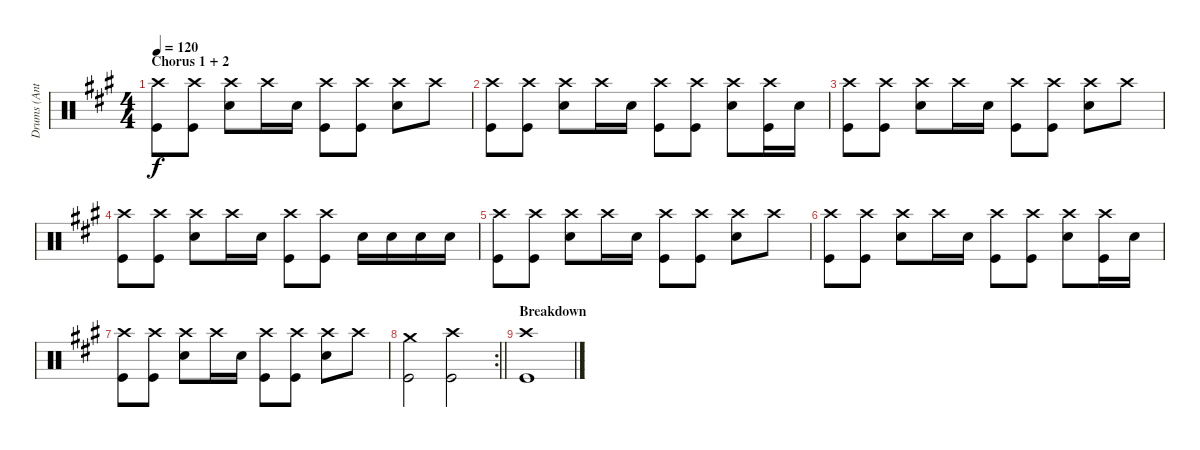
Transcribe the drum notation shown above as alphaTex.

\track ("Drums (Ant)" "Drums (Ant") {instrument percussion}
\staff {score}
\articulation defaults
\ts (4 4)
\section ("" "Chorus 1 + 2")
\tempo 120
\clef neutral
\ks a
("Crash high (hit)" "Kick (hit)").8{dy f} ("Crash high (hit)" "Kick (hit)").8 ("Crash high (hit)" "Snare (hit) 2").8 "Crash high (hit)".16 "Snare (hit) 2".16 ("Crash high (hit)" "Kick (hit)").8 ("Crash high (hit)" "Kick (hit)").8 ("Crash high (hit)" "Snare (hit) 2").8 "Crash high (hit)".8 |
("Crash high (hit)" "Kick (hit)").8 ("Crash high (hit)" "Kick (hit)").8 ("Crash high (hit)" "Snare (hit) 2").8 "Crash high (hit)".16 "Snare (hit) 2".16 ("Crash high (hit)" "Kick (hit)").8 ("Crash high (hit)" "Kick (hit)").8 ("Crash high (hit)" "Snare (hit) 2").8 ("Crash high (hit)" "Kick (hit)").16 "Snare (hit) 2".16 |
("Crash high (hit)" "Kick (hit)").8 ("Crash high (hit)" "Kick (hit)").8 ("Crash high (hit)" "Snare (hit) 2").8 "Crash high (hit)".16 "Snare (hit) 2".16 ("Crash high (hit)" "Kick (hit)").8 ("Crash high (hit)" "Kick (hit)").8 ("Crash high (hit)" "Snare (hit) 2").8 "Crash high (hit)".8 |
("Crash high (hit)" "Kick (hit)").8 ("Crash high (hit)" "Kick (hit)").8 ("Crash high (hit)" "Snare (hit) 2").8 "Crash high (hit)".16 "Snare (hit) 2".16 ("Crash high (hit)" "Kick (hit)").8 ("Crash high (hit)" "Kick (hit)").8 "Snare (hit) 2".16 "Snare (hit) 2".16 "Snare (hit) 2".16 "Snare (hit) 2".16 |
("Crash high (hit)" "Kick (hit)").8 ("Crash high (hit)" "Kick (hit)").8 ("Crash high (hit)" "Snare (hit) 2").8 "Crash high (hit)".16 "Snare (hit) 2".16 ("Crash high (hit)" "Kick (hit)").8 ("Crash high (hit)" "Kick (hit)").8 ("Crash high (hit)" "Snare (hit) 2").8 "Crash high (hit)".8 |
("Crash high (hit)" "Kick (hit)").8 ("Crash high (hit)" "Kick (hit)").8 ("Crash high (hit)" "Snare (hit) 2").8 "Crash high (hit)".16 "Snare (hit) 2".16 ("Crash high (hit)" "Kick (hit)").8 ("Crash high (hit)" "Kick (hit)").8 ("Crash high (hit)" "Snare (hit) 2").8 ("Crash high (hit)" "Kick (hit)").16 "Snare (hit) 2".16 |
("Crash high (hit)" "Kick (hit)").8 ("Crash high (hit)" "Kick (hit)").8 ("Crash high (hit)" "Snare (hit) 2").8 "Crash high (hit)".16 "Snare (hit) 2".16 ("Crash high (hit)" "Kick (hit)").8 ("Crash high (hit)" "Kick (hit)").8 ("Crash high (hit)" "Snare (hit) 2").8 "Crash high (hit)".8 |
\rc 2
\barLineRight lightlight
("Crash medium (hit)" "Kick (hit)").2 ("Crash high (hit)" "Kick (hit)").2 |
\section ("" "Breakdown")
("Crash high (hit)" "Kick (hit)").1
